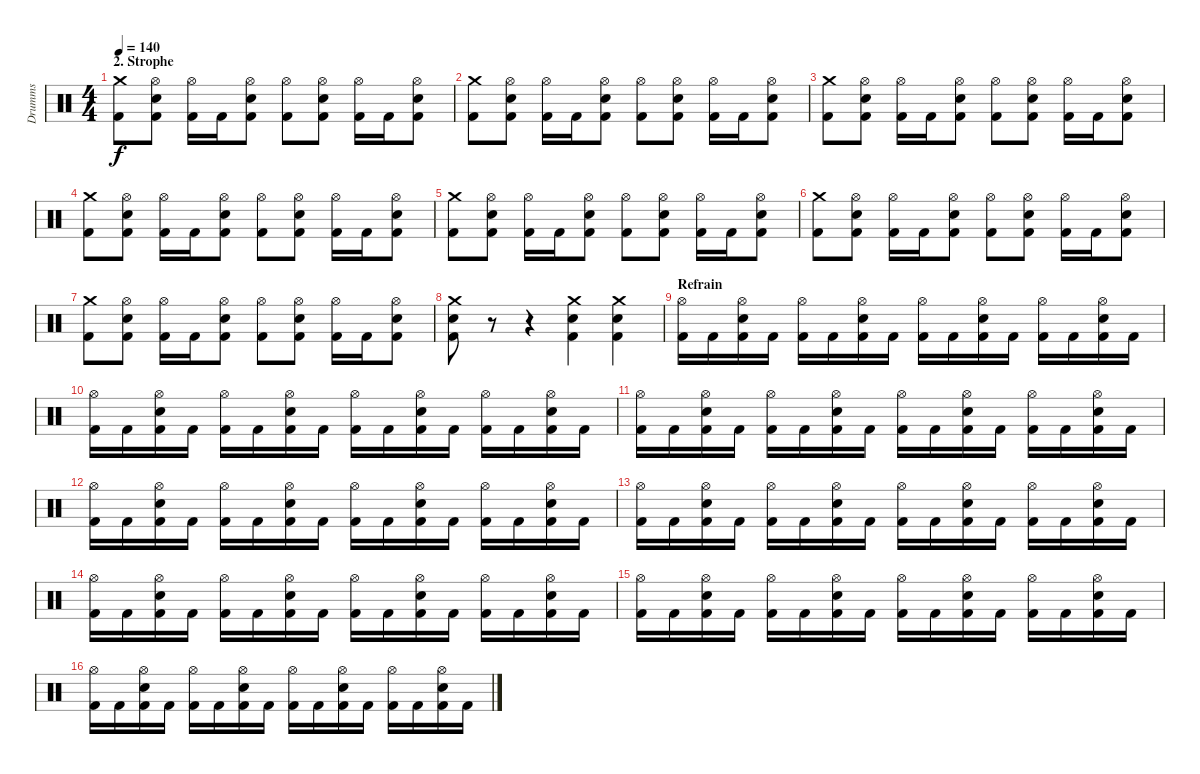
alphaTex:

\track ("Drumms" "Drumms") {instrument percussion}
\staff {score}
\articulation defaults
\ts (4 4)
\section ("" "2. Strophe")
\tempo 140
\clef neutral
\ks c
("Crash medium (hit)" "Kick (hit) 2").8{dy f} ("Hi-Hat (open)" "Electric Snare (hit)" "Kick (hit) 2").8 ("Hi-Hat (open)" "Kick (hit) 2").16 "Kick (hit) 2".16 ("Hi-Hat (open)" "Electric Snare (hit)" "Kick (hit) 2").8 ("Hi-Hat (open)" "Kick (hit) 2").8 ("Hi-Hat (open)" "Electric Snare (hit)" "Kick (hit) 2").8 ("Hi-Hat (open)" "Kick (hit) 2").16 "Kick (hit) 2".16 ("Hi-Hat (open)" "Electric Snare (hit)" "Kick (hit) 2").8 |
("Crash medium (hit)" "Kick (hit) 2").8 ("Hi-Hat (open)" "Electric Snare (hit)" "Kick (hit) 2").8 ("Hi-Hat (open)" "Kick (hit) 2").16 "Kick (hit) 2".16 ("Hi-Hat (open)" "Electric Snare (hit)" "Kick (hit) 2").8 ("Hi-Hat (open)" "Kick (hit) 2").8 ("Hi-Hat (open)" "Electric Snare (hit)" "Kick (hit) 2").8 ("Hi-Hat (open)" "Kick (hit) 2").16 "Kick (hit) 2".16 ("Hi-Hat (open)" "Electric Snare (hit)" "Kick (hit) 2").8 |
("Crash medium (hit)" "Kick (hit) 2").8 ("Hi-Hat (open)" "Electric Snare (hit)" "Kick (hit) 2").8 ("Hi-Hat (open)" "Kick (hit) 2").16 "Kick (hit) 2".16 ("Hi-Hat (open)" "Electric Snare (hit)" "Kick (hit) 2").8 ("Hi-Hat (open)" "Kick (hit) 2").8 ("Hi-Hat (open)" "Electric Snare (hit)" "Kick (hit) 2").8 ("Hi-Hat (open)" "Kick (hit) 2").16 "Kick (hit) 2".16 ("Hi-Hat (open)" "Electric Snare (hit)" "Kick (hit) 2").8 |
("Crash medium (hit)" "Kick (hit) 2").8 ("Hi-Hat (open)" "Electric Snare (hit)" "Kick (hit) 2").8 ("Hi-Hat (open)" "Kick (hit) 2").16 "Kick (hit) 2".16 ("Hi-Hat (open)" "Electric Snare (hit)" "Kick (hit) 2").8 ("Hi-Hat (open)" "Kick (hit) 2").8 ("Hi-Hat (open)" "Electric Snare (hit)" "Kick (hit) 2").8 ("Hi-Hat (open)" "Kick (hit) 2").16 "Kick (hit) 2".16 ("Hi-Hat (open)" "Electric Snare (hit)" "Kick (hit) 2").8 |
("Crash medium (hit)" "Kick (hit) 2").8 ("Hi-Hat (open)" "Electric Snare (hit)" "Kick (hit) 2").8 ("Hi-Hat (open)" "Kick (hit) 2").16 "Kick (hit) 2".16 ("Hi-Hat (open)" "Electric Snare (hit)" "Kick (hit) 2").8 ("Hi-Hat (open)" "Kick (hit) 2").8 ("Hi-Hat (open)" "Electric Snare (hit)" "Kick (hit) 2").8 ("Hi-Hat (open)" "Kick (hit) 2").16 "Kick (hit) 2".16 ("Hi-Hat (open)" "Electric Snare (hit)" "Kick (hit) 2").8 |
("Crash medium (hit)" "Kick (hit) 2").8 ("Hi-Hat (open)" "Electric Snare (hit)" "Kick (hit) 2").8 ("Hi-Hat (open)" "Kick (hit) 2").16 "Kick (hit) 2".16 ("Hi-Hat (open)" "Electric Snare (hit)" "Kick (hit) 2").8 ("Hi-Hat (open)" "Kick (hit) 2").8 ("Hi-Hat (open)" "Electric Snare (hit)" "Kick (hit) 2").8 ("Hi-Hat (open)" "Kick (hit) 2").16 "Kick (hit) 2".16 ("Hi-Hat (open)" "Electric Snare (hit)" "Kick (hit) 2").8 |
("Crash medium (hit)" "Kick (hit) 2").8 ("Hi-Hat (open)" "Electric Snare (hit)" "Kick (hit) 2").8 ("Hi-Hat (open)" "Kick (hit) 2").16 "Kick (hit) 2".16 ("Hi-Hat (open)" "Electric Snare (hit)" "Kick (hit) 2").8 ("Hi-Hat (open)" "Kick (hit) 2").8 ("Hi-Hat (open)" "Electric Snare (hit)" "Kick (hit) 2").8 ("Hi-Hat (open)" "Kick (hit) 2").16 "Kick (hit) 2".16 ("Hi-Hat (open)" "Electric Snare (hit)" "Kick (hit) 2").8 |
("Crash medium (hit)" "Electric Snare (hit)" "Kick (hit) 2").8 r.8 r.4 ("Crash medium (hit)" "Electric Snare (hit)" "Kick (hit) 2").4 ("Crash medium (hit)" "Electric Snare (hit)" "Kick (hit) 2").4 |
\section ("" "Refrain")
("Hi-Hat (open)" "Kick (hit) 2").16 "Kick (hit) 2".16 ("Hi-Hat (open)" "Electric Snare (hit)" "Kick (hit) 2").16 "Kick (hit) 2".16 ("Hi-Hat (open)" "Kick (hit) 2").16 "Kick (hit) 2".16 ("Hi-Hat (open)" "Electric Snare (hit)" "Kick (hit) 2").16 "Kick (hit) 2".16 ("Hi-Hat (open)" "Kick (hit) 2").16 "Kick (hit) 2".16 ("Hi-Hat (open)" "Electric Snare (hit)" "Kick (hit) 2").16 "Kick (hit) 2".16 ("Hi-Hat (open)" "Kick (hit) 2").16 "Kick (hit) 2".16 ("Hi-Hat (open)" "Electric Snare (hit)" "Kick (hit) 2").16 "Kick (hit) 2".16 |
("Hi-Hat (open)" "Kick (hit) 2").16 "Kick (hit) 2".16 ("Hi-Hat (open)" "Electric Snare (hit)" "Kick (hit) 2").16 "Kick (hit) 2".16 ("Hi-Hat (open)" "Kick (hit) 2").16 "Kick (hit) 2".16 ("Hi-Hat (open)" "Electric Snare (hit)" "Kick (hit) 2").16 "Kick (hit) 2".16 ("Hi-Hat (open)" "Kick (hit) 2").16 "Kick (hit) 2".16 ("Hi-Hat (open)" "Electric Snare (hit)" "Kick (hit) 2").16 "Kick (hit) 2".16 ("Hi-Hat (open)" "Kick (hit) 2").16 "Kick (hit) 2".16 ("Hi-Hat (open)" "Electric Snare (hit)" "Kick (hit) 2").16 "Kick (hit) 2".16 |
("Hi-Hat (open)" "Kick (hit) 2").16 "Kick (hit) 2".16 ("Hi-Hat (open)" "Electric Snare (hit)" "Kick (hit) 2").16 "Kick (hit) 2".16 ("Hi-Hat (open)" "Kick (hit) 2").16 "Kick (hit) 2".16 ("Hi-Hat (open)" "Electric Snare (hit)" "Kick (hit) 2").16 "Kick (hit) 2".16 ("Hi-Hat (open)" "Kick (hit) 2").16 "Kick (hit) 2".16 ("Hi-Hat (open)" "Electric Snare (hit)" "Kick (hit) 2").16 "Kick (hit) 2".16 ("Hi-Hat (open)" "Kick (hit) 2").16 "Kick (hit) 2".16 ("Hi-Hat (open)" "Electric Snare (hit)" "Kick (hit) 2").16 "Kick (hit) 2".16 |
("Hi-Hat (open)" "Kick (hit) 2").16 "Kick (hit) 2".16 ("Hi-Hat (open)" "Electric Snare (hit)" "Kick (hit) 2").16 "Kick (hit) 2".16 ("Hi-Hat (open)" "Kick (hit) 2").16 "Kick (hit) 2".16 ("Hi-Hat (open)" "Electric Snare (hit)" "Kick (hit) 2").16 "Kick (hit) 2".16 ("Hi-Hat (open)" "Kick (hit) 2").16 "Kick (hit) 2".16 ("Hi-Hat (open)" "Electric Snare (hit)" "Kick (hit) 2").16 "Kick (hit) 2".16 ("Hi-Hat (open)" "Kick (hit) 2").16 "Kick (hit) 2".16 ("Hi-Hat (open)" "Electric Snare (hit)" "Kick (hit) 2").16 "Kick (hit) 2".16 |
("Hi-Hat (open)" "Kick (hit) 2").16 "Kick (hit) 2".16 ("Hi-Hat (open)" "Electric Snare (hit)" "Kick (hit) 2").16 "Kick (hit) 2".16 ("Hi-Hat (open)" "Kick (hit) 2").16 "Kick (hit) 2".16 ("Hi-Hat (open)" "Electric Snare (hit)" "Kick (hit) 2").16 "Kick (hit) 2".16 ("Hi-Hat (open)" "Kick (hit) 2").16 "Kick (hit) 2".16 ("Hi-Hat (open)" "Electric Snare (hit)" "Kick (hit) 2").16 "Kick (hit) 2".16 ("Hi-Hat (open)" "Kick (hit) 2").16 "Kick (hit) 2".16 ("Hi-Hat (open)" "Electric Snare (hit)" "Kick (hit) 2").16 "Kick (hit) 2".16 |
("Hi-Hat (open)" "Kick (hit) 2").16 "Kick (hit) 2".16 ("Hi-Hat (open)" "Electric Snare (hit)" "Kick (hit) 2").16 "Kick (hit) 2".16 ("Hi-Hat (open)" "Kick (hit) 2").16 "Kick (hit) 2".16 ("Hi-Hat (open)" "Electric Snare (hit)" "Kick (hit) 2").16 "Kick (hit) 2".16 ("Hi-Hat (open)" "Kick (hit) 2").16 "Kick (hit) 2".16 ("Hi-Hat (open)" "Electric Snare (hit)" "Kick (hit) 2").16 "Kick (hit) 2".16 ("Hi-Hat (open)" "Kick (hit) 2").16 "Kick (hit) 2".16 ("Hi-Hat (open)" "Electric Snare (hit)" "Kick (hit) 2").16 "Kick (hit) 2".16 |
("Hi-Hat (open)" "Kick (hit) 2").16 "Kick (hit) 2".16 ("Hi-Hat (open)" "Electric Snare (hit)" "Kick (hit) 2").16 "Kick (hit) 2".16 ("Hi-Hat (open)" "Kick (hit) 2").16 "Kick (hit) 2".16 ("Hi-Hat (open)" "Electric Snare (hit)" "Kick (hit) 2").16 "Kick (hit) 2".16 ("Hi-Hat (open)" "Kick (hit) 2").16 "Kick (hit) 2".16 ("Hi-Hat (open)" "Electric Snare (hit)" "Kick (hit) 2").16 "Kick (hit) 2".16 ("Hi-Hat (open)" "Kick (hit) 2").16 "Kick (hit) 2".16 ("Hi-Hat (open)" "Electric Snare (hit)" "Kick (hit) 2").16 "Kick (hit) 2".16 |
("Hi-Hat (open)" "Kick (hit) 2").16 "Kick (hit) 2".16 ("Hi-Hat (open)" "Electric Snare (hit)" "Kick (hit) 2").16 "Kick (hit) 2".16 ("Hi-Hat (open)" "Kick (hit) 2").16 "Kick (hit) 2".16 ("Hi-Hat (open)" "Electric Snare (hit)" "Kick (hit) 2").16 "Kick (hit) 2".16 ("Hi-Hat (open)" "Kick (hit) 2").16 "Kick (hit) 2".16 ("Hi-Hat (open)" "Electric Snare (hit)" "Kick (hit) 2").16 "Kick (hit) 2".16 ("Hi-Hat (open)" "Kick (hit) 2").16 "Kick (hit) 2".16 ("Hi-Hat (open)" "Electric Snare (hit)" "Kick (hit) 2").16 "Kick (hit) 2".16
